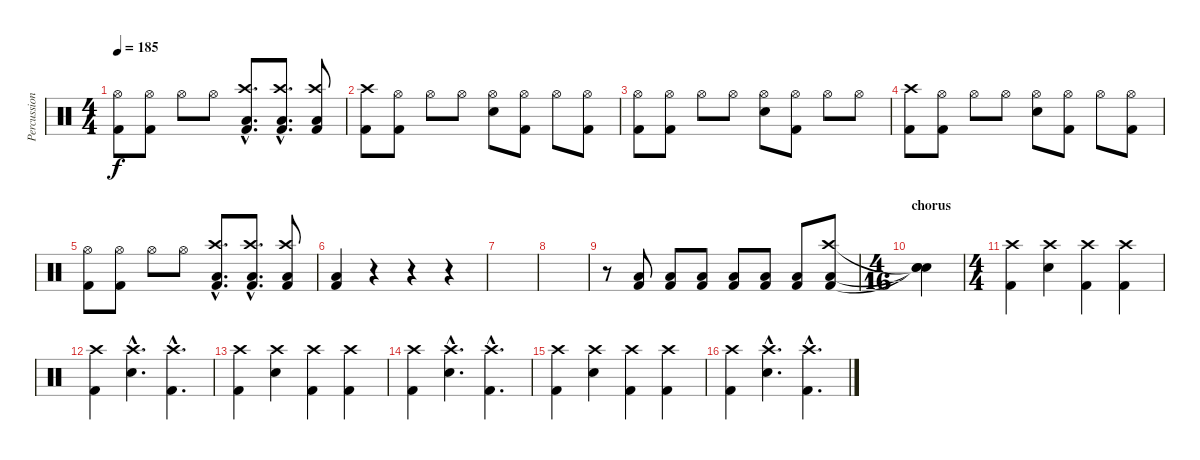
\track ("Percussion" "Percussion") {instrument percussion}
\staff {score}
\articulation defaults
\ts (4 4)
\tempo 185
\clef neutral
\ks c
("Hi-Hat (open)" "Kick (hit) 2").8{dy f} ("Hi-Hat (open)" "Kick (hit) 2").8 "Hi-Hat (open)".8 "Hi-Hat (open)".8 ("Crash high (hit)"{hac} "Low Tom (hit)"{hac} "Kick (hit) 2"{hac}).8{d} ("Crash high (hit)"{hac} "Low Tom (hit)"{hac} "Kick (hit) 2"{hac}).8{d} ("Crash high (hit)" "Low Tom (hit)" "Kick (hit) 2").8 |
("Crash high (hit)" "Kick (hit) 2").8 ("Hi-Hat (open)" "Kick (hit) 2").8 "Hi-Hat (open)".8 "Hi-Hat (open)".8 ("Hi-Hat (open)" "Snare (hit) 2").8 ("Hi-Hat (open)" "Kick (hit) 2").8 "Hi-Hat (open)".8 ("Hi-Hat (open)" "Kick (hit) 2").8 |
("Hi-Hat (open)" "Kick (hit) 2").8 ("Hi-Hat (open)" "Kick (hit) 2").8 "Hi-Hat (open)".8 "Hi-Hat (open)".8 ("Hi-Hat (open)" "Snare (hit) 2").8 ("Hi-Hat (open)" "Kick (hit) 2").8 "Hi-Hat (open)".8 "Hi-Hat (open)".8 |
("Crash high (hit)" "Kick (hit) 2").8 ("Hi-Hat (open)" "Kick (hit) 2").8 "Hi-Hat (open)".8 "Hi-Hat (open)".8 ("Hi-Hat (open)" "Snare (hit) 2").8 ("Hi-Hat (open)" "Kick (hit) 2").8 "Hi-Hat (open)".8 ("Hi-Hat (open)" "Kick (hit) 2").8 |
("Hi-Hat (open)" "Kick (hit) 2").8 ("Hi-Hat (open)" "Kick (hit) 2").8 "Hi-Hat (open)".8 "Hi-Hat (open)".8 ("Crash high (hit)"{hac} "Low Tom (hit)"{hac} "Kick (hit) 2"{hac}).8{d} ("Crash high (hit)"{hac} "Low Tom (hit)"{hac} "Kick (hit) 2"{hac}).8{d} ("Crash high (hit)" "Low Tom (hit)" "Kick (hit) 2").8 |
("Low Tom (hit)" "Kick (hit) 2").4 r.4 r.4 r.4 |
|
|
r.8 ("Low Floor Tom (hit)" "Kick (hit) 2").8 ("Low Floor Tom (hit)" "Kick (hit) 2").8 ("Low Floor Tom (hit)" "Kick (hit) 2").8 ("Low Floor Tom (hit)" "Kick (hit) 2").8 ("Low Floor Tom (hit)" "Kick (hit) 2").8 ("Low Floor Tom (hit)" "Kick (hit) 2").8 ("Crash high (hit)" "Low Floor Tom (hit)" "Kick (hit) 2").8 |
\ts (4 16)
\section ("" "chorus")
("Snare (hit)"{t} "Snare (hit)"{t} "Snare (hit)"{t}).4 |
\ts (4 4)
("Crash high (hit)" "Kick (hit) 2").4 ("Crash high (hit)" "Snare (hit) 2").4 ("Crash high (hit)" "Kick (hit) 2").4 ("Crash high (hit)" "Kick (hit) 2").4 |
("Crash high (hit)" "Kick (hit) 2").4 ("Crash high (hit)"{hac} "Snare (hit) 2"{hac}).4{d} ("Crash high (hit)"{hac} "Kick (hit) 2"{hac}).4{d} |
("Crash high (hit)" "Kick (hit) 2").4 ("Crash high (hit)" "Snare (hit) 2").4 ("Crash high (hit)" "Kick (hit) 2").4 ("Crash high (hit)" "Kick (hit) 2").4 |
("Crash high (hit)" "Kick (hit) 2").4 ("Crash high (hit)"{hac} "Snare (hit) 2"{hac}).4{d} ("Crash high (hit)"{hac} "Kick (hit) 2"{hac}).4{d} |
("Crash high (hit)" "Kick (hit) 2").4 ("Crash high (hit)" "Snare (hit) 2").4 ("Crash high (hit)" "Kick (hit) 2").4 ("Crash high (hit)" "Kick (hit) 2").4 |
("Crash high (hit)" "Kick (hit) 2").4 ("Crash high (hit)"{hac} "Snare (hit) 2"{hac}).4{d} ("Crash high (hit)"{hac} "Kick (hit) 2"{hac}).4{d}
